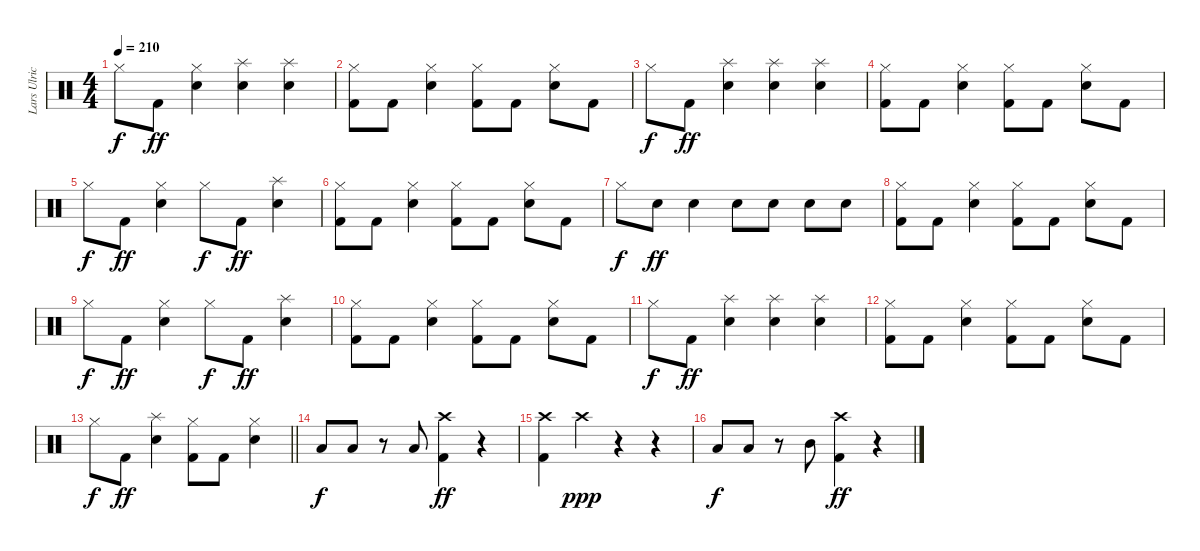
\track ("Lars Ulrich" "Lars Ulric") {instrument percussion}
\staff {score}
\articulation defaults
\ts (4 4)
\tempo 210
\clef neutral
\ks c "Hi-Hat (closed)".8{dy f} "Kick (hit) 2".8{dy ff}
("Hi-Hat (closed)" "Snare (hit) 2").4 ("Splash (hit)" "Snare (hit) 2").4 ("Splash (hit)" "Snare (hit) 2").4 |
("Hi-Hat (closed)" "Kick (hit) 2").8 "Kick (hit) 2".8 ("Hi-Hat (closed)" "Snare (hit) 2").4 ("Hi-Hat (closed)" "Kick (hit) 2").8 "Kick (hit) 2".8 ("Hi-Hat (closed)" "Snare (hit) 2").8 "Kick (hit) 2".8 |
"Hi-Hat (closed)".8{dy f} "Kick (hit) 2".8{dy ff} ("Splash (hit)" "Snare (hit) 2").4 ("Splash (hit)" "Snare (hit) 2").4 ("Splash (hit)" "Snare (hit) 2").4 |
("Hi-Hat (closed)" "Kick (hit) 2").8 "Kick (hit) 2".8 ("Hi-Hat (closed)" "Snare (hit) 2").4 ("Hi-Hat (closed)" "Kick (hit) 2").8 "Kick (hit) 2".8 ("Hi-Hat (closed)" "Snare (hit) 2").8 "Kick (hit) 2".8 |
"Hi-Hat (closed)".8{dy f} "Kick (hit) 2".8{dy ff} ("Hi-Hat (closed)" "Snare (hit) 2").4 "Hi-Hat (closed)".8{dy f} "Kick (hit) 2".8{dy ff} ("Splash (hit)" "Snare (hit) 2").4 |
("Hi-Hat (closed)" "Kick (hit) 2").8 "Kick (hit) 2".8 ("Hi-Hat (closed)" "Snare (hit) 2").4 ("Hi-Hat (closed)" "Kick (hit) 2").8 "Kick (hit) 2".8 ("Hi-Hat (closed)" "Snare (hit) 2").8 "Kick (hit) 2".8 |
"Hi-Hat (closed)".8{dy f} "Snare (hit) 2".8{dy ff} "Snare (hit) 2".4 "Snare (hit) 2".8 "Snare (hit) 2".8 "Snare (hit) 2".8 "Snare (hit) 2".8 |
("Hi-Hat (closed)" "Kick (hit) 2").8 "Kick (hit) 2".8 ("Hi-Hat (closed)" "Snare (hit) 2").4 ("Hi-Hat (closed)" "Kick (hit) 2").8 "Kick (hit) 2".8 ("Hi-Hat (closed)" "Snare (hit) 2").8 "Kick (hit) 2".8 |
"Hi-Hat (closed)".8{dy f} "Kick (hit) 2".8{dy ff} ("Hi-Hat (closed)" "Snare (hit) 2").4 "Hi-Hat (closed)".8{dy f} "Kick (hit) 2".8{dy ff} ("Splash (hit)" "Snare (hit) 2").4 |
("Hi-Hat (closed)" "Kick (hit) 2").8 "Kick (hit) 2".8 ("Hi-Hat (closed)" "Snare (hit) 2").4 ("Hi-Hat (closed)" "Kick (hit) 2").8 "Kick (hit) 2".8 ("Hi-Hat (closed)" "Snare (hit) 2").8 "Kick (hit) 2".8 |
"Hi-Hat (closed)".8{dy f} "Kick (hit) 2".8{dy ff} ("Splash (hit)" "Snare (hit) 2").4 ("Splash (hit)" "Snare (hit) 2").4 ("Splash (hit)" "Snare (hit) 2").4 |
("Hi-Hat (closed)" "Kick (hit) 2").8 "Kick (hit) 2".8 ("Hi-Hat (closed)" "Snare (hit) 2").4 ("Hi-Hat (closed)" "Kick (hit) 2").8 "Kick (hit) 2".8 ("Hi-Hat (closed)" "Snare (hit) 2").8 "Kick (hit) 2".8 |
\barLineRight lightlight "Hi-Hat (closed)".8{dy f} "Kick (hit) 2".8{dy ff}
("Splash (hit)" "Snare (hit) 2").4 ("Hi-Hat (closed)" "Kick (hit) 2").8 "Kick (hit) 2".8 ("Hi-Hat (closed)" "Snare (hit) 2").4 |
"Low Tom (hit)".8{dy f} "Low Tom (hit)".8 r.8 "Low Tom (hit)".8 ("Crash high (hit)" "Kick (hit) 2").4{dy ff} r.4 |
("Crash high (hit)" "Kick (hit) 2").4 "Crash high (hit)".4{dy ppp volume 0} r.4 r.4 |
"Low Tom (hit)".8{dy f volume 16} "Low Tom (hit)".8 r.8 "Mid Tom (hit)".8 ("Crash high (hit)" "Kick (hit) 2").4{dy ff} r.4
